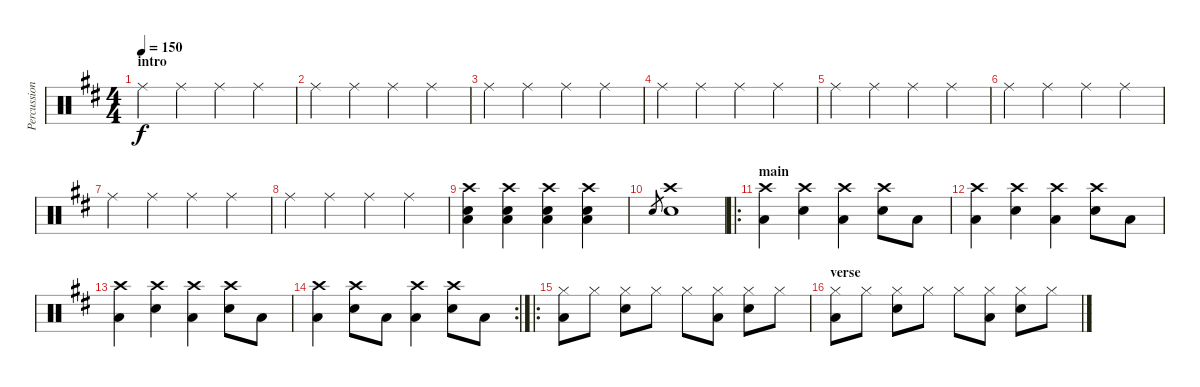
\track ("Percussion" "Percussion") {instrument percussion}
\staff {score}
\articulation defaults
\ts (4 4)
\section ("" "intro")
\tempo 150
\clef neutral
\ks bminor "Ride (middle)".4{dy f} "Ride (middle)".4 "Ride (middle)".4 "Ride (middle)".4
|
"Ride (middle)".4 "Ride (middle)".4 "Ride (middle)".4 "Ride (middle)".4 |
"Ride (middle)".4 "Ride (middle)".4 "Ride (middle)".4 "Ride (middle)".4 |
"Ride (middle)".4 "Ride (middle)".4 "Ride (middle)".4 "Ride (middle)".4 |
"Ride (middle)".4 "Ride (middle)".4 "Ride (middle)".4 "Ride (middle)".4 |
"Ride (middle)".4 "Ride (middle)".4 "Ride (middle)".4 "Ride (middle)".4 |
"Ride (middle)".4 "Ride (middle)".4 "Ride (middle)".4 "Ride (middle)".4 |
"Ride (middle)".4 "Ride (middle)".4 "Ride (middle)".4 "Ride (middle)".4 |
("Crash high (hit)" "Electric Snare (hit)" "Low Floor Tom (hit)").4 ("Crash high (hit)" "Electric Snare (hit)" "Low Floor Tom (hit)").4 ("Crash high (hit)" "Electric Snare (hit)" "Low Floor Tom (hit)").4 ("Crash high (hit)" "Electric Snare (hit)" "Low Floor Tom (hit)").4 |
"Electric Snare (hit)".8{gr} ("Electric Snare (hit)" "Crash high (hit)").1 |
\ro
\section ("" "main")
("Crash high (hit)" "Low Floor Tom (hit)").4 ("Crash high (hit)" "Electric Snare (hit)").4 ("Crash high (hit)" "Low Floor Tom (hit)").4 ("Crash high (hit)" "Electric Snare (hit)").8 "Low Floor Tom (hit)".8 |
("Crash high (hit)" "Low Floor Tom (hit)").4 ("Crash high (hit)" "Electric Snare (hit)").4 ("Crash high (hit)" "Low Floor Tom (hit)").4 ("Crash high (hit)" "Electric Snare (hit)").8 "Low Floor Tom (hit)".8 |
("Crash high (hit)" "Low Floor Tom (hit)").4 ("Crash high (hit)" "Electric Snare (hit)").4 ("Crash high (hit)" "Low Floor Tom (hit)").4 ("Crash high (hit)" "Electric Snare (hit)").8 "Low Floor Tom (hit)".8 |
\rc 2
("Crash high (hit)" "Low Floor Tom (hit)").4 ("Crash high (hit)" "Electric Snare (hit)").8 "Low Floor Tom (hit)".8 ("Crash high (hit)" "Low Floor Tom (hit)").4 ("Crash high (hit)" "Electric Snare (hit)").8 "Low Floor Tom (hit)".8 |
\ro
("Hi-Hat (closed)" "Low Floor Tom (hit)").8 "Hi-Hat (closed)".8 ("Hi-Hat (closed)" "Electric Snare (hit)").8 "Hi-Hat (closed)".8 "Hi-Hat (closed)".8 ("Hi-Hat (closed)" "Low Floor Tom (hit)").8 ("Hi-Hat (closed)" "Electric Snare (hit)").8 "Hi-Hat (closed)".8 |
\section ("" "verse")
("Hi-Hat (closed)" "Low Floor Tom (hit)").8 "Hi-Hat (closed)".8 ("Hi-Hat (closed)" "Electric Snare (hit)").8 "Hi-Hat (closed)".8 "Hi-Hat (closed)".8 ("Hi-Hat (closed)" "Low Floor Tom (hit)").8 ("Hi-Hat (closed)" "Electric Snare (hit)").8 "Hi-Hat (closed)".8
